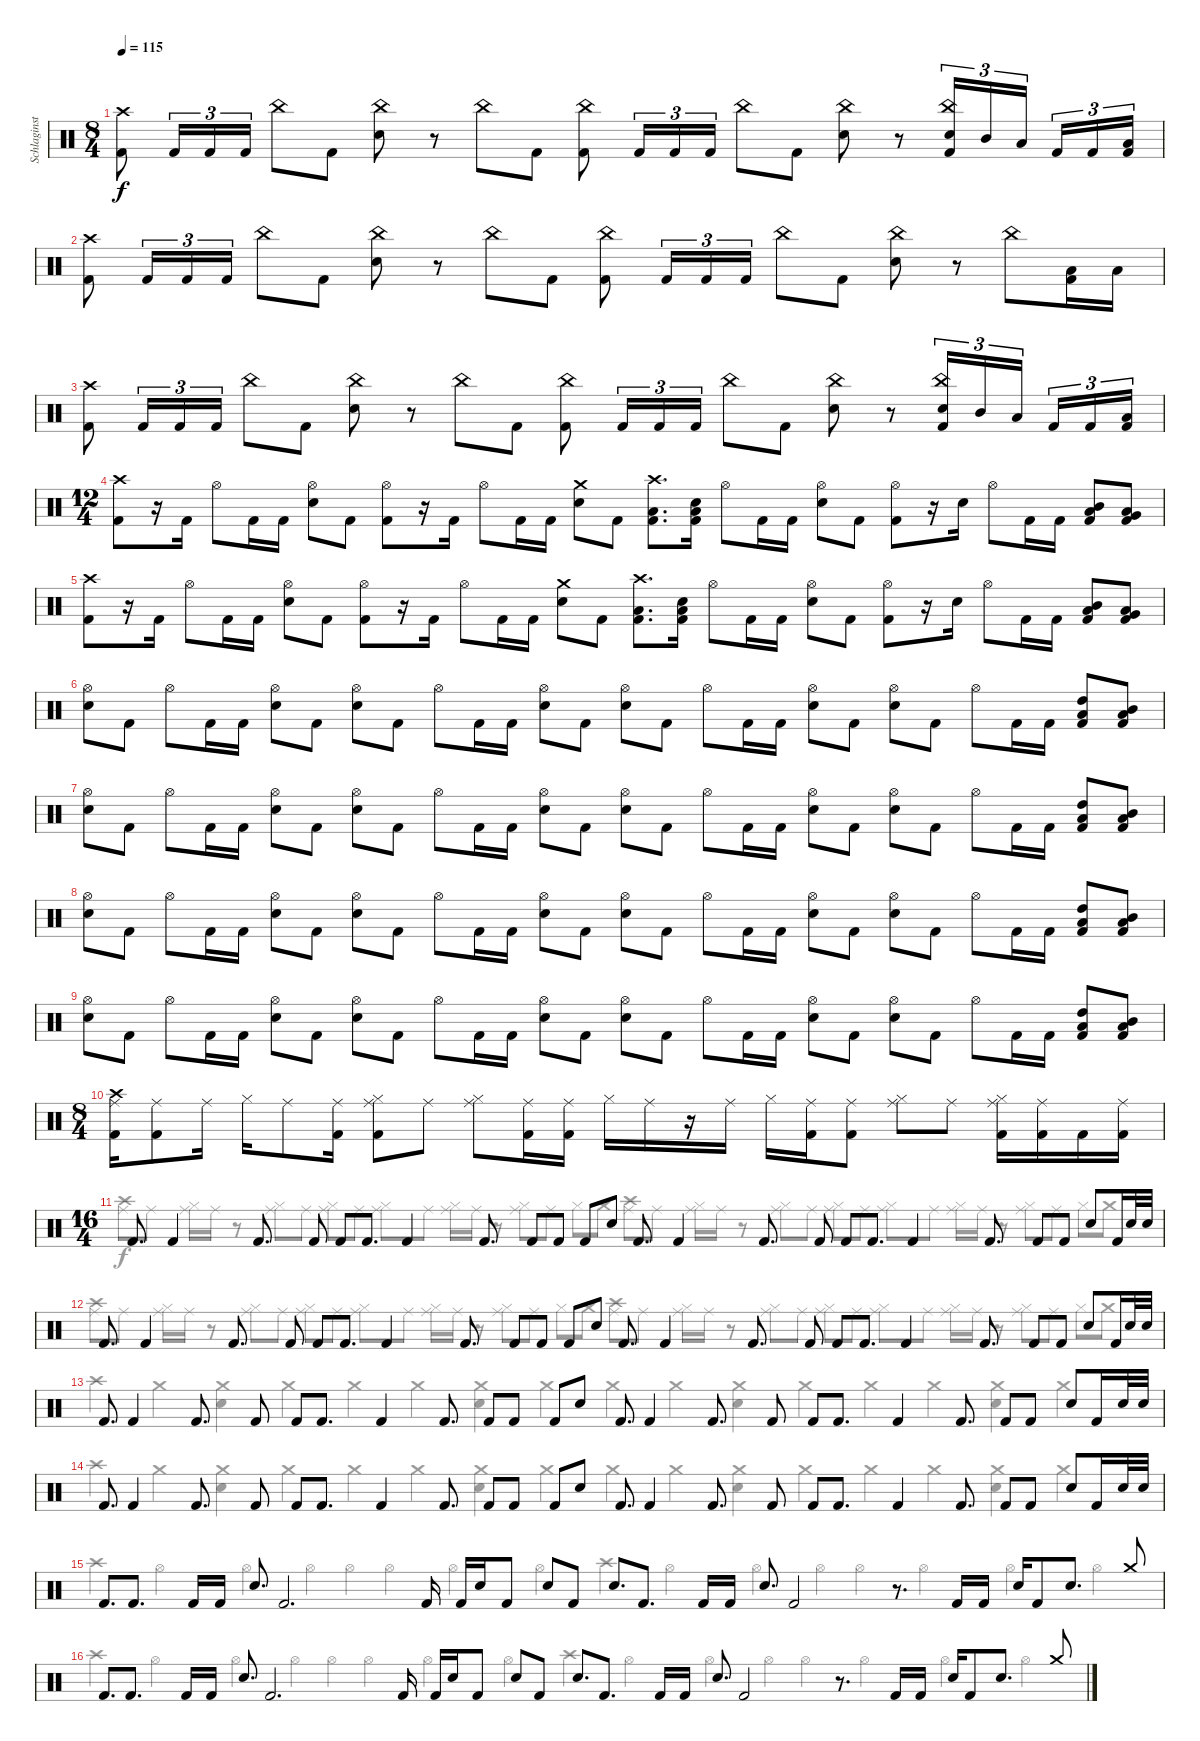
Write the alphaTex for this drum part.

\track ("Schlaginstrumente - Auswahl" "Schlaginst") {instrument percussion}
\staff {score}
\articulation defaults
\voice
\ts (8 4)
\tempo 115
\clef neutral
\ks c
("Crash high (hit)" "Kick (hit) 2").8{dy f} "Kick (hit) 2".16{tu (3 2)} "Kick (hit) 2".16{tu (3 2)} "Kick (hit) 2".16{tu (3 2)} "China (hit)".8 "Kick (hit) 2".8 ("China (hit)" "Snare (hit) 2").8 r.8 "China (hit)".8 "Kick (hit) 2".8 ("China (hit)" "Kick (hit) 2").8 "Kick (hit) 2".16{tu (3 2)} "Kick (hit) 2".16{tu (3 2)} "Kick (hit) 2".16{tu (3 2)} "China (hit)".8 "Kick (hit) 2".8 ("China (hit)" "Snare (hit) 2").8 r.8 ("China (hit)" "Snare (hit) 2" "Kick (hit) 2").16{tu (3 2)} "Mid Tom (hit)".16{tu (3 2)} "Low Tom (hit)".16{tu (3 2) beam splitsecondary} "Kick (hit) 2".16{tu (3 2)} "Kick (hit) 2".16{tu (3 2)} ("Low Tom (hit)" "Kick (hit) 2").16{tu (3 2)} |
("Crash high (hit)" "Kick (hit) 2").8 "Kick (hit) 2".16{tu (3 2)} "Kick (hit) 2".16{tu (3 2)} "Kick (hit) 2".16{tu (3 2)} "China (hit)".8 "Kick (hit) 2".8 ("China (hit)" "Snare (hit) 2").8 r.8 "China (hit)".8 "Kick (hit) 2".8 ("China (hit)" "Kick (hit) 2").8 "Kick (hit) 2".16{tu (3 2)} "Kick (hit) 2".16{tu (3 2)} "Kick (hit) 2".16{tu (3 2)} "China (hit)".8 "Kick (hit) 2".8 ("China (hit)" "Snare (hit) 2").8 r.8 "China (hit)".8 ("Low Tom (hit)" "Kick (hit) 2").16 "Low Tom (hit)".16 |
("Crash high (hit)" "Kick (hit) 2").8 "Kick (hit) 2".16{tu (3 2)} "Kick (hit) 2".16{tu (3 2)} "Kick (hit) 2".16{tu (3 2)} "China (hit)".8 "Kick (hit) 2".8 ("China (hit)" "Snare (hit) 2").8 r.8 "China (hit)".8 "Kick (hit) 2".8 ("China (hit)" "Kick (hit) 2").8 "Kick (hit) 2".16{tu (3 2)} "Kick (hit) 2".16{tu (3 2)} "Kick (hit) 2".16{tu (3 2)} "China (hit)".8 "Kick (hit) 2".8 ("China (hit)" "Snare (hit) 2").8 r.8 ("China (hit)" "Snare (hit) 2" "Kick (hit) 2").16{tu (3 2)} "Mid Tom (hit)".16{tu (3 2)} "Low Tom (hit)".16{tu (3 2) beam splitsecondary} "Kick (hit) 2".16{tu (3 2)} "Kick (hit) 2".16{tu (3 2)} ("Low Tom (hit)" "Kick (hit) 2").16{tu (3 2)} |
\ts (12 4)
("Crash high (hit)" "Kick (hit) 2").8 r.16 "Kick (hit) 2".16 "Hi-Hat (open)".8 "Kick (hit) 2".16 "Kick (hit) 2".16 ("Hi-Hat (open)" "Snare (hit) 2").8 "Kick (hit) 2".8 ("Hi-Hat (open)" "Kick (hit) 2").8 r.16 "Kick (hit) 2".16 "Hi-Hat (open)".8 "Kick (hit) 2".16 "Kick (hit) 2".16 ("Crash medium (hit)" "Snare (hit) 2").8 "Kick (hit) 2".8 ("Crash high (hit)" "Low Tom (hit)" "Kick (hit) 2").8{d} ("Snare (hit) 2" "Low Tom (hit)" "Kick (hit) 2").16 "Hi-Hat (open)".8 "Kick (hit) 2".16 "Kick (hit) 2".16 ("Hi-Hat (open)" "Snare (hit) 2").8 "Kick (hit) 2".8 ("Hi-Hat (open)" "Kick (hit) 2").8 r.16 "Snare (hit) 2".16 "Hi-Hat (open)".8 "Kick (hit) 2".16 "Kick (hit) 2".16 ("Low Tom (hit)" "Mid Tom (hit)" "Kick (hit) 2").8 ("Low Tom (hit)" "Very Low Tom (hit)" "Kick (hit) 2").8 |
("Crash high (hit)" "Kick (hit) 2").8 r.16 "Kick (hit) 2".16 "Hi-Hat (open)".8 "Kick (hit) 2".16 "Kick (hit) 2".16 ("Hi-Hat (open)" "Snare (hit) 2").8 "Kick (hit) 2".8 ("Hi-Hat (open)" "Kick (hit) 2").8 r.16 "Kick (hit) 2".16 "Hi-Hat (open)".8 "Kick (hit) 2".16 "Kick (hit) 2".16 ("Crash medium (hit)" "Snare (hit) 2").8 "Kick (hit) 2".8 ("Crash high (hit)" "Low Tom (hit)" "Kick (hit) 2").8{d} ("Snare (hit) 2" "Low Tom (hit)" "Kick (hit) 2").16 "Hi-Hat (open)".8 "Kick (hit) 2".16 "Kick (hit) 2".16 ("Hi-Hat (open)" "Snare (hit) 2").8 "Kick (hit) 2".8 ("Hi-Hat (open)" "Kick (hit) 2").8 r.16 "Snare (hit) 2".16 "Hi-Hat (open)".8 "Kick (hit) 2".16 "Kick (hit) 2".16 ("Low Tom (hit)" "Mid Tom (hit)" "Kick (hit) 2").8 ("Low Tom (hit)" "Very Low Tom (hit)" "Kick (hit) 2").8 |
("Hi-Hat (open)" "Snare (hit) 2").8 "Kick (hit) 2".8 "Hi-Hat (open)".8 "Kick (hit) 2".16 "Kick (hit) 2".16 ("Hi-Hat (open)" "Snare (hit) 2").8 "Kick (hit) 2".8 ("Hi-Hat (open)" "Snare (hit) 2").8 "Kick (hit) 2".8 "Hi-Hat (open)".8 "Kick (hit) 2".16 "Kick (hit) 2".16 ("Hi-Hat (open)" "Snare (hit) 2").8 "Kick (hit) 2".8 ("Hi-Hat (open)" "Snare (hit) 2").8 "Kick (hit) 2".8 "Hi-Hat (open)".8 "Kick (hit) 2".16 "Kick (hit) 2".16 ("Hi-Hat (open)" "Snare (hit) 2").8 "Kick (hit) 2".8 ("Hi-Hat (open)" "Snare (hit) 2").8 "Kick (hit) 2".8 "Hi-Hat (open)".8 "Kick (hit) 2".16 "Kick (hit) 2".16 ("High Tom (hit)" "Low Tom (hit)" "Kick (hit) 2").8 ("Mid Tom (hit)" "Low Tom (hit)" "Kick (hit) 2").8 |
("Hi-Hat (open)" "Snare (hit) 2").8 "Kick (hit) 2".8 "Hi-Hat (open)".8 "Kick (hit) 2".16 "Kick (hit) 2".16 ("Hi-Hat (open)" "Snare (hit) 2").8 "Kick (hit) 2".8 ("Hi-Hat (open)" "Snare (hit) 2").8 "Kick (hit) 2".8 "Hi-Hat (open)".8 "Kick (hit) 2".16 "Kick (hit) 2".16 ("Hi-Hat (open)" "Snare (hit) 2").8 "Kick (hit) 2".8 ("Hi-Hat (open)" "Snare (hit) 2").8 "Kick (hit) 2".8 "Hi-Hat (open)".8 "Kick (hit) 2".16 "Kick (hit) 2".16 ("Hi-Hat (open)" "Snare (hit) 2").8 "Kick (hit) 2".8 ("Hi-Hat (open)" "Snare (hit) 2").8 "Kick (hit) 2".8 "Hi-Hat (open)".8 "Kick (hit) 2".16 "Kick (hit) 2".16 ("High Tom (hit)" "Low Tom (hit)" "Kick (hit) 2").8 ("Mid Tom (hit)" "Low Tom (hit)" "Kick (hit) 2").8 |
("Hi-Hat (open)" "Snare (hit) 2").8 "Kick (hit) 2".8 "Hi-Hat (open)".8 "Kick (hit) 2".16 "Kick (hit) 2".16 ("Hi-Hat (open)" "Snare (hit) 2").8 "Kick (hit) 2".8 ("Hi-Hat (open)" "Snare (hit) 2").8 "Kick (hit) 2".8 "Hi-Hat (open)".8 "Kick (hit) 2".16 "Kick (hit) 2".16 ("Hi-Hat (open)" "Snare (hit) 2").8 "Kick (hit) 2".8 ("Hi-Hat (open)" "Snare (hit) 2").8 "Kick (hit) 2".8 "Hi-Hat (open)".8 "Kick (hit) 2".16 "Kick (hit) 2".16 ("Hi-Hat (open)" "Snare (hit) 2").8 "Kick (hit) 2".8 ("Hi-Hat (open)" "Snare (hit) 2").8 "Kick (hit) 2".8 "Hi-Hat (open)".8 "Kick (hit) 2".16 "Kick (hit) 2".16 ("High Tom (hit)" "Low Tom (hit)" "Kick (hit) 2").8 ("Mid Tom (hit)" "Low Tom (hit)" "Kick (hit) 2").8 |
("Hi-Hat (open)" "Snare (hit) 2").8 "Kick (hit) 2".8 "Hi-Hat (open)".8 "Kick (hit) 2".16 "Kick (hit) 2".16 ("Hi-Hat (open)" "Snare (hit) 2").8 "Kick (hit) 2".8 ("Hi-Hat (open)" "Snare (hit) 2").8 "Kick (hit) 2".8 "Hi-Hat (open)".8 "Kick (hit) 2".16 "Kick (hit) 2".16 ("Hi-Hat (open)" "Snare (hit) 2").8 "Kick (hit) 2".8 ("Hi-Hat (open)" "Snare (hit) 2").8 "Kick (hit) 2".8 "Hi-Hat (open)".8 "Kick (hit) 2".16 "Kick (hit) 2".16 ("Hi-Hat (open)" "Snare (hit) 2").8 "Kick (hit) 2".8 ("Hi-Hat (open)" "Snare (hit) 2").8 "Kick (hit) 2".8 "Hi-Hat (open)".8 "Kick (hit) 2".16 "Kick (hit) 2".16 ("High Tom (hit)" "Low Tom (hit)" "Kick (hit) 2").8 ("Mid Tom (hit)" "Low Tom (hit)" "Kick (hit) 2").8 |
\ts (8 4)
("Crash high (hit)" "Ride (middle)" "Kick (hit) 2").16 ("Ride (middle)" "Kick (hit) 2").8 "Ride (middle)".16 "Hi-Hat (closed)".16 "Ride (middle)".8 ("Ride (middle)" "Kick (hit) 2").16 ("Hi-Hat (closed)" "Ride (middle)" "Kick (hit) 2").8 "Ride (middle)".8 ("Hi-Hat (closed)" "Ride (middle)").8 ("Ride (middle)" "Kick (hit) 2").16 ("Ride (middle)" "Kick (hit) 2").16 "Hi-Hat (closed)".16 "Ride (middle)".16 r.16 "Ride (middle)".16 "Hi-Hat (closed)".16 ("Ride (middle)" "Kick (hit) 2").16 ("Ride (middle)" "Kick (hit) 2").8 ("Hi-Hat (closed)" "Ride (middle)").8 "Ride (middle)".8 ("Hi-Hat (closed)" "Ride (middle)" "Kick (hit) 2").16 ("Ride (middle)" "Kick (hit) 2").16 "Kick (hit) 2".16 ("Ride (middle)" "Kick (hit) 2").16 |
\ts (16 4)
"Kick (hit) 2".8{d} "Kick (hit) 2".4 "Kick (hit) 2".8{d} "Kick (hit) 2".8 "Kick (hit) 2".8 "Kick (hit) 2".8{d} "Kick (hit) 2".4 "Kick (hit) 2".8{d} "Kick (hit) 2".8 "Kick (hit) 2".8 "Kick (hit) 2".8 "Snare (hit) 2".8 "Kick (hit) 2".8{d} "Kick (hit) 2".4 "Kick (hit) 2".8{d} "Kick (hit) 2".8 "Kick (hit) 2".8 "Kick (hit) 2".8{d} "Kick (hit) 2".4 "Kick (hit) 2".8{d} "Kick (hit) 2".8 "Kick (hit) 2".8 "Snare (hit) 2".8 "Kick (hit) 2".16 "Snare (hit) 2".32 "Snare (hit) 2".32 |
"Kick (hit) 2".8{d} "Kick (hit) 2".4 "Kick (hit) 2".8{d} "Kick (hit) 2".8 "Kick (hit) 2".8 "Kick (hit) 2".8{d} "Kick (hit) 2".4 "Kick (hit) 2".8{d} "Kick (hit) 2".8 "Kick (hit) 2".8 "Kick (hit) 2".8 "Snare (hit) 2".8 "Kick (hit) 2".8{d} "Kick (hit) 2".4 "Kick (hit) 2".8{d} "Kick (hit) 2".8 "Kick (hit) 2".8 "Kick (hit) 2".8{d} "Kick (hit) 2".4 "Kick (hit) 2".8{d} "Kick (hit) 2".8 "Kick (hit) 2".8 "Snare (hit) 2".8 "Kick (hit) 2".16 "Snare (hit) 2".32 "Snare (hit) 2".32 |
"Kick (hit) 2".8{d} "Kick (hit) 2".4 "Kick (hit) 2".8{d} "Kick (hit) 2".8 "Kick (hit) 2".8 "Kick (hit) 2".8{d} "Kick (hit) 2".4 "Kick (hit) 2".8{d} "Kick (hit) 2".8 "Kick (hit) 2".8 "Kick (hit) 2".8 "Snare (hit) 2".8 "Kick (hit) 2".8{d} "Kick (hit) 2".4 "Kick (hit) 2".8{d} "Kick (hit) 2".8 "Kick (hit) 2".8 "Kick (hit) 2".8{d} "Kick (hit) 2".4 "Kick (hit) 2".8{d} "Kick (hit) 2".8 "Kick (hit) 2".8 "Snare (hit) 2".8 "Kick (hit) 2".16 "Snare (hit) 2".32 "Snare (hit) 2".32 |
"Kick (hit) 2".8{d} "Kick (hit) 2".4 "Kick (hit) 2".8{d} "Kick (hit) 2".8 "Kick (hit) 2".8 "Kick (hit) 2".8{d} "Kick (hit) 2".4 "Kick (hit) 2".8{d} "Kick (hit) 2".8 "Kick (hit) 2".8 "Kick (hit) 2".8 "Snare (hit) 2".8 "Kick (hit) 2".8{d} "Kick (hit) 2".4 "Kick (hit) 2".8{d} "Kick (hit) 2".8 "Kick (hit) 2".8 "Kick (hit) 2".8{d} "Kick (hit) 2".4 "Kick (hit) 2".8{d} "Kick (hit) 2".8 "Kick (hit) 2".8 "Snare (hit) 2".8 "Kick (hit) 2".16 "Snare (hit) 2".32 "Snare (hit) 2".32 |
"Kick (hit) 2".8{d} "Kick (hit) 2".8{d} "Kick (hit) 2".16 "Kick (hit) 2".16 "Snare (hit) 2".8{d} "Kick (hit) 2".2{d} "Kick (hit) 2".16 "Kick (hit) 2".16 "Snare (hit) 2".16 "Kick (hit) 2".8 "Snare (hit) 2".8 "Kick (hit) 2".8 "Snare (hit) 2".8{d} "Kick (hit) 2".8{d} "Kick (hit) 2".16 "Kick (hit) 2".16 "Snare (hit) 2".8{d} "Kick (hit) 2".2 r.8{d} "Kick (hit) 2".16 "Kick (hit) 2".16 "Snare (hit) 2".16 "Kick (hit) 2".8 "Snare (hit) 2".8{d} "Crash medium (hit)".8 |
"Kick (hit) 2".8{d} "Kick (hit) 2".8{d} "Kick (hit) 2".16 "Kick (hit) 2".16 "Snare (hit) 2".8{d} "Kick (hit) 2".2{d} "Kick (hit) 2".16 "Kick (hit) 2".16 "Snare (hit) 2".16 "Kick (hit) 2".8 "Snare (hit) 2".8 "Kick (hit) 2".8 "Snare (hit) 2".8{d} "Kick (hit) 2".8{d} "Kick (hit) 2".16 "Kick (hit) 2".16 "Snare (hit) 2".8{d} "Kick (hit) 2".2 r.8{d} "Kick (hit) 2".16 "Kick (hit) 2".16 "Snare (hit) 2".16 "Kick (hit) 2".8 "Snare (hit) 2".8{d} "Crash medium (hit)".8
\voice
\clef neutral
\ottava regular
\simile none
\ks c
|
|
|
|
|
|
|
|
|
|
("Crash high (hit)" "Ride (middle)").8 "Ride (middle)".8 ("Hi-Hat (closed)" "Ride (middle)").16 "Ride (middle)".16 r.8 ("Hi-Hat (closed)" "Ride (middle)").8 "Ride (middle)".8 ("Hi-Hat (closed)" "Ride (middle)").8 "Ride (middle)".8 ("Hi-Hat (closed)" "Ride (middle)").8 "Ride (middle)".8 ("Hi-Hat (closed)" "Ride (middle)").16 "Ride (middle)".16 r.8 ("Hi-Hat (closed)" "Ride (middle)").8 "Ride (middle)".8 "Hi-Hat (closed)".8 "Crash medium (hit)".8 ("Crash high (hit)" "Ride (middle)").8 "Ride (middle)".8 ("Hi-Hat (closed)" "Ride (middle)").16 "Ride (middle)".16 r.8 ("Hi-Hat (closed)" "Ride (middle)").8 "Ride (middle)".8 ("Hi-Hat (closed)" "Ride (middle)").8 "Ride (middle)".8 ("Hi-Hat (closed)" "Ride (middle)").8 "Ride (middle)".8 ("Hi-Hat (closed)" "Ride (middle)").16 "Ride (middle)".16 r.8 ("Hi-Hat (closed)" "Ride (middle)").8 "Ride (middle)".8 "Hi-Hat (closed)".8 "Crash medium (hit)".8 |
("Crash high (hit)" "Ride (middle)").8 "Ride (middle)".8 ("Hi-Hat (closed)" "Ride (middle)").16 "Ride (middle)".16 r.8 ("Hi-Hat (closed)" "Ride (middle)").8 "Ride (middle)".8 ("Hi-Hat (closed)" "Ride (middle)").8 "Ride (middle)".8 ("Hi-Hat (closed)" "Ride (middle)").8 "Ride (middle)".8 ("Hi-Hat (closed)" "Ride (middle)").16 "Ride (middle)".16 r.8 ("Hi-Hat (closed)" "Ride (middle)").8 "Ride (middle)".8 "Hi-Hat (closed)".8 "Crash medium (hit)".8 ("Crash high (hit)" "Ride (middle)").8 "Ride (middle)".8 ("Hi-Hat (closed)" "Ride (middle)").16 "Ride (middle)".16 r.8 ("Hi-Hat (closed)" "Ride (middle)").8 "Ride (middle)".8 ("Hi-Hat (closed)" "Ride (middle)").8 "Ride (middle)".8 ("Hi-Hat (closed)" "Ride (middle)").8 "Ride (middle)".8 ("Hi-Hat (closed)" "Ride (middle)").16 "Ride (middle)".16 r.8 ("Hi-Hat (closed)" "Ride (middle)").8 "Ride (middle)".8 "Hi-Hat (closed)".8 "Crash medium (hit)".8 |
"Crash high (hit)".4 "Crash medium (hit)".4 ("Crash medium (hit)" "Snare (hit) 2").4 "Crash medium (hit)".4 "Crash medium (hit)".4 "Crash medium (hit)".4 ("Crash medium (hit)" "Snare (hit) 2").4 "Crash medium (hit)".4 "Crash medium (hit)".4 "Crash medium (hit)".4 ("Crash medium (hit)" "Snare (hit) 2").4 "Crash medium (hit)".4 "Crash medium (hit)".4 "Crash medium (hit)".4 ("Crash medium (hit)" "Snare (hit) 2").4 "Crash medium (hit)".4 |
"Crash high (hit)".4 "Crash medium (hit)".4 ("Crash medium (hit)" "Snare (hit) 2").4 "Crash medium (hit)".4 "Crash medium (hit)".4 "Crash medium (hit)".4 ("Crash medium (hit)" "Snare (hit) 2").4 "Crash medium (hit)".4 "Crash medium (hit)".4 "Crash medium (hit)".4 ("Crash medium (hit)" "Snare (hit) 2").4 "Crash medium (hit)".4 "Crash medium (hit)".4 "Crash medium (hit)".4 ("Crash medium (hit)" "Snare (hit) 2").4 "Crash medium (hit)".4 |
"Crash high (hit)".4 "Hi-Hat (open)".4 "Hi-Hat (open)".4 "Hi-Hat (open)".4 "Hi-Hat (open)".4 "Hi-Hat (open)".4 "Hi-Hat (open)".4 "Hi-Hat (open)".4 "Crash high (hit)".4 "Hi-Hat (open)".4 "Hi-Hat (open)".4 "Hi-Hat (open)".4 "Hi-Hat (open)".4 "Hi-Hat (open)".4 "Hi-Hat (open)".4 "Hi-Hat (open)".4 |
"Crash high (hit)".4 "Hi-Hat (open)".4 "Hi-Hat (open)".4 "Hi-Hat (open)".4 "Hi-Hat (open)".4 "Hi-Hat (open)".4 "Hi-Hat (open)".4 "Hi-Hat (open)".4 "Crash high (hit)".4 "Hi-Hat (open)".4 "Hi-Hat (open)".4 "Hi-Hat (open)".4 "Hi-Hat (open)".4 "Hi-Hat (open)".4 "Hi-Hat (open)".4 "Hi-Hat (open)".4
